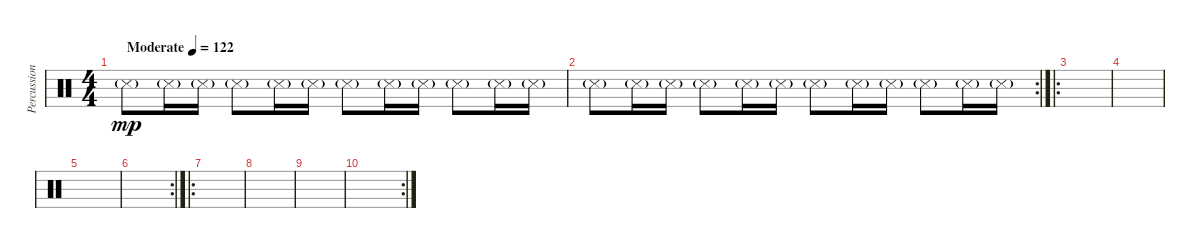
\track ("Percussion" "Percussion") {instrument percussion}
\staff {score}
\articulation defaults
\ts (4 4)
\tempo (122 "Moderate")
\clef neutral
\ks c "Snare (side stick) 3"{g}.8{dy mp} "Snare (side stick) 3"{g}.16 "Snare (side stick) 3"{g}.16 "Snare (side stick) 3"{g}.8 "Snare (side stick) 3"{g}.16 "Snare (side stick) 3"{g}.16 "Snare (side stick) 3"{g}.8 "Snare (side stick) 3"{g}.16 "Snare (side stick) 3"{g}.16 "Snare (side stick) 3"{g}.8 "Snare (side stick) 3"{g}.16 "Snare (side stick) 3"{g}.16
|
\rc 2 "Snare (side stick) 3"{g}.8 "Snare (side stick) 3"{g}.16 "Snare (side stick) 3"{g}.16 "Snare (side stick) 3"{g}.8 "Snare (side stick) 3"{g}.16 "Snare (side stick) 3"{g}.16 "Snare (side stick) 3"{g}.8 "Snare (side stick) 3"{g}.16 "Snare (side stick) 3"{g}.16 "Snare (side stick) 3"{g}.8 "Snare (side stick) 3"{g}.16 "Snare (side stick) 3"{g}.16
|
\ro
|
|
|
\rc 2
|
\ro
|
|
|
\rc 2
